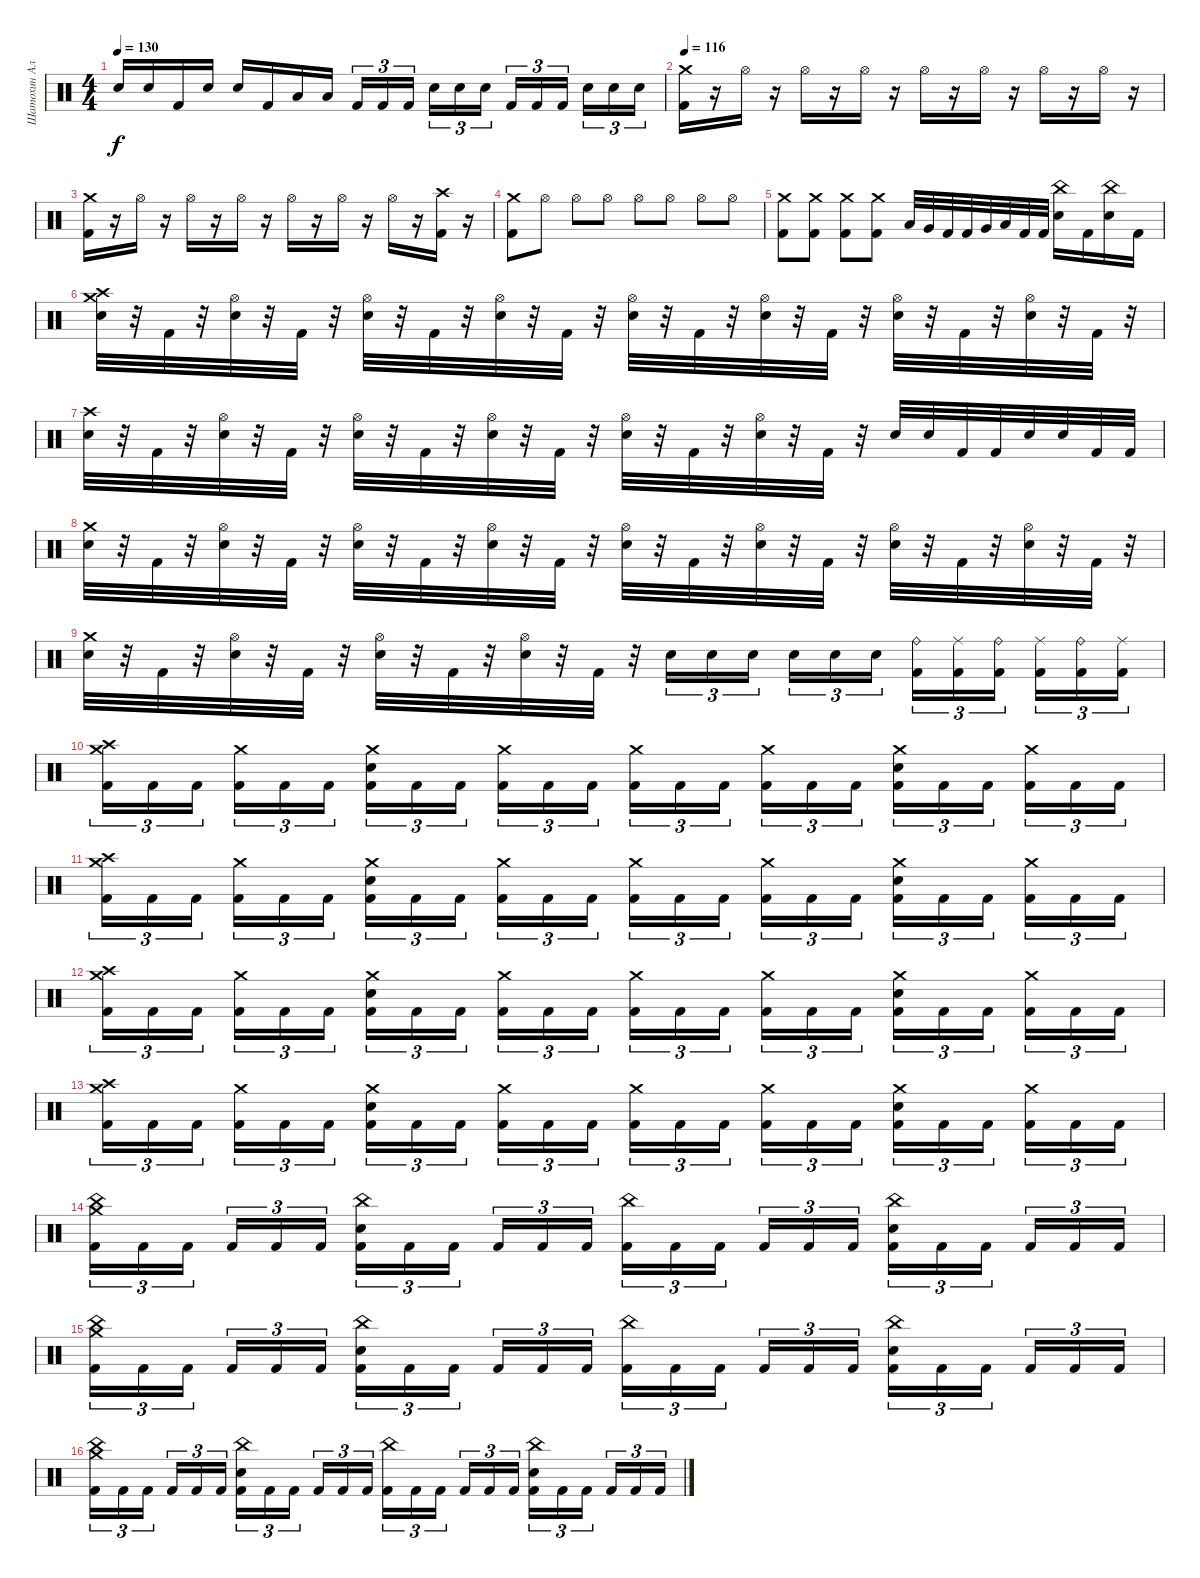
\track ("Шатохин Алексей" "Шатохин Ал") {instrument percussion}
\staff {score}
\articulation defaults
\ts (4 4)
\tempo 130
\clef neutral
\ks c "Electric Snare (hit)".16{dy f} "Electric Snare (hit)".16 "Kick (hit) 2".16 "Electric Snare (hit)".16 "Electric Snare (hit)".16 "Kick (hit) 2".16 "Low Tom (hit)".16 "Low Tom (hit)".16 "Kick (hit) 2".16{tu (3 2)} "Kick (hit) 2".16{tu (3 2)} "Kick (hit) 2".16{tu (3 2) beam splitsecondary} "Electric Snare (hit)".16{tu (3 2)} "Electric Snare (hit)".16{tu (3 2)} "Electric Snare (hit)".16{tu (3 2)} "Kick (hit) 2".16{tu (3 2)} "Kick (hit) 2".16{tu (3 2)} "Kick (hit) 2".16{tu (3 2) beam splitsecondary} "Electric Snare (hit)".16{tu (3 2)} "Electric Snare (hit)".16{tu (3 2)} "Electric Snare (hit)".16{tu (3 2)}
|
\tempo 116
("Crash medium (hit)" "Kick (hit) 2").16 r.16 "Hi-Hat (open)".16 r.16 "Hi-Hat (open)".16 r.16 "Hi-Hat (open)".16 r.16 "Hi-Hat (open)".16 r.16 "Hi-Hat (open)".16 r.16 "Hi-Hat (open)".16 r.16 "Hi-Hat (open)".16 r.16 |
("Crash medium (hit)" "Kick (hit) 2").16 r.16 "Hi-Hat (open)".16 r.16 "Hi-Hat (open)".16 r.16 "Hi-Hat (open)".16 r.16 "Hi-Hat (open)".16 r.16 "Hi-Hat (open)".16 r.16 "Hi-Hat (open)".16 r.16 ("Crash high (hit)" "Kick (hit) 2").16 r.16 |
("Crash medium (hit)" "Kick (hit) 2").8 "Hi-Hat (open)".8 "Hi-Hat (open)".8 "Hi-Hat (open)".8 "Hi-Hat (open)".8 "Hi-Hat (open)".8 "Hi-Hat (open)".8 "Hi-Hat (open)".8 |
("Crash medium (hit)" "Kick (hit) 2").8 ("Crash medium (hit)" "Kick (hit) 2").8 ("Crash medium (hit)" "Kick (hit) 2").8 ("Crash medium (hit)" "Kick (hit) 2").8 "Low Tom (hit)".32 "Very Low Tom (hit)".32 "Kick (hit) 2".32 "Kick (hit) 2".32 "Very Low Tom (hit)".32 "Low Floor Tom (hit)".32 "Kick (hit) 2".32 "Kick (hit) 2".32 ("China (hit)" "Electric Snare (hit)").16 "Kick (hit) 2".16 ("China (hit)" "Electric Snare (hit)").16 "Kick (hit) 2".16 |
("Crash high (hit)" "Crash medium (hit)" "Electric Snare (hit)").32 r.32 "Kick (hit) 2".32 r.32 ("Hi-Hat (open)" "Electric Snare (hit)").32 r.32 "Kick (hit) 2".32 r.32 ("Hi-Hat (open)" "Electric Snare (hit)").32 r.32 "Kick (hit) 2".32 r.32 ("Hi-Hat (open)" "Electric Snare (hit)").32 r.32 "Kick (hit) 2".32 r.32 ("Hi-Hat (open)" "Electric Snare (hit)").32 r.32 "Kick (hit) 2".32 r.32 ("Hi-Hat (open)" "Electric Snare (hit)").32 r.32 "Kick (hit) 2".32 r.32 ("Hi-Hat (open)" "Electric Snare (hit)").32 r.32 "Kick (hit) 2".32 r.32 ("Hi-Hat (open)" "Electric Snare (hit)").32 r.32 "Kick (hit) 2".32 r.32 |
("Crash high (hit)" "Electric Snare (hit)").32 r.32 "Kick (hit) 2".32 r.32 ("Hi-Hat (open)" "Electric Snare (hit)").32 r.32 "Kick (hit) 2".32 r.32 ("Hi-Hat (open)" "Electric Snare (hit)").32 r.32 "Kick (hit) 2".32 r.32 ("Hi-Hat (open)" "Electric Snare (hit)").32 r.32 "Kick (hit) 2".32 r.32 ("Hi-Hat (open)" "Electric Snare (hit)").32 r.32 "Kick (hit) 2".32 r.32 ("Hi-Hat (open)" "Electric Snare (hit)").32 r.32 "Kick (hit) 2".32 r.32 "Electric Snare (hit)".32 "Electric Snare (hit)".32 "Kick (hit) 2".32 "Kick (hit) 2".32 "Electric Snare (hit)".32 "Electric Snare (hit)".32 "Kick (hit) 2".32 "Kick (hit) 2".32 |
("Crash medium (hit)" "Electric Snare (hit)").32 r.32 "Kick (hit) 2".32 r.32 ("Hi-Hat (open)" "Electric Snare (hit)").32 r.32 "Kick (hit) 2".32 r.32 ("Hi-Hat (open)" "Electric Snare (hit)").32 r.32 "Kick (hit) 2".32 r.32 ("Hi-Hat (open)" "Electric Snare (hit)").32 r.32 "Kick (hit) 2".32 r.32 ("Hi-Hat (open)" "Electric Snare (hit)").32 r.32 "Kick (hit) 2".32 r.32 ("Hi-Hat (open)" "Electric Snare (hit)").32 r.32 "Kick (hit) 2".32 r.32 ("Hi-Hat (open)" "Electric Snare (hit)").32 r.32 "Kick (hit) 2".32 r.32 ("Hi-Hat (open)" "Electric Snare (hit)").32 r.32 "Kick (hit) 2".32 r.32 |
("Crash medium (hit)" "Electric Snare (hit)").32 r.32 "Kick (hit) 2".32 r.32 ("Hi-Hat (open)" "Electric Snare (hit)").32 r.32 "Kick (hit) 2".32 r.32 ("Hi-Hat (open)" "Electric Snare (hit)").32 r.32 "Kick (hit) 2".32 r.32 ("Hi-Hat (open)" "Electric Snare (hit)").32 r.32 "Kick (hit) 2".32 r.32 "Electric Snare (hit)".16{tu (3 2)} "Electric Snare (hit)".16{tu (3 2)} "Electric Snare (hit)".16{tu (3 2) beam splitsecondary} "Electric Snare (hit)".16{tu (3 2)} "Electric Snare (hit)".16{tu (3 2)} "Electric Snare (hit)".16{tu (3 2)} ("Ride (bell)" "Kick (hit) 2").16{tu (3 2)} ("Ride (middle)" "Kick (hit) 2").16{tu (3 2)} ("Ride (bell)" "Kick (hit) 2").16{tu (3 2) beam splitsecondary} ("Ride (middle)" "Kick (hit) 2").16{tu (3 2)} ("Ride (bell)" "Kick (hit) 2").16{tu (3 2)} ("Ride (middle)" "Kick (hit) 2").16{tu (3 2)} |
("Crash high (hit)" "Crash medium (hit)" "Kick (hit) 2").16{tu (3 2)} "Kick (hit) 2".16{tu (3 2)} "Kick (hit) 2".16{tu (3 2) beam splitsecondary} ("Crash medium (hit)" "Kick (hit) 2").16{tu (3 2)} "Kick (hit) 2".16{tu (3 2)} "Kick (hit) 2".16{tu (3 2)} ("Crash medium (hit)" "Electric Snare (hit)" "Kick (hit) 2").16{tu (3 2)} "Kick (hit) 2".16{tu (3 2)} "Kick (hit) 2".16{tu (3 2) beam splitsecondary} ("Crash medium (hit)" "Kick (hit) 2").16{tu (3 2)} "Kick (hit) 2".16{tu (3 2)} "Kick (hit) 2".16{tu (3 2)} ("Crash medium (hit)" "Kick (hit) 2").16{tu (3 2)} "Kick (hit) 2".16{tu (3 2)} "Kick (hit) 2".16{tu (3 2) beam splitsecondary} ("Crash medium (hit)" "Kick (hit) 2").16{tu (3 2)} "Kick (hit) 2".16{tu (3 2)} "Kick (hit) 2".16{tu (3 2)} ("Crash medium (hit)" "Electric Snare (hit)" "Kick (hit) 2").16{tu (3 2)} "Kick (hit) 2".16{tu (3 2)} "Kick (hit) 2".16{tu (3 2) beam splitsecondary} ("Crash medium (hit)" "Kick (hit) 2").16{tu (3 2)} "Kick (hit) 2".16{tu (3 2)} "Kick (hit) 2".16{tu (3 2)} |
("Crash high (hit)" "Crash medium (hit)" "Kick (hit) 2").16{tu (3 2)} "Kick (hit) 2".16{tu (3 2)} "Kick (hit) 2".16{tu (3 2) beam splitsecondary} ("Crash medium (hit)" "Kick (hit) 2").16{tu (3 2)} "Kick (hit) 2".16{tu (3 2)} "Kick (hit) 2".16{tu (3 2)} ("Crash medium (hit)" "Electric Snare (hit)" "Kick (hit) 2").16{tu (3 2)} "Kick (hit) 2".16{tu (3 2)} "Kick (hit) 2".16{tu (3 2) beam splitsecondary} ("Crash medium (hit)" "Kick (hit) 2").16{tu (3 2)} "Kick (hit) 2".16{tu (3 2)} "Kick (hit) 2".16{tu (3 2)} ("Crash medium (hit)" "Kick (hit) 2").16{tu (3 2)} "Kick (hit) 2".16{tu (3 2)} "Kick (hit) 2".16{tu (3 2) beam splitsecondary} ("Crash medium (hit)" "Kick (hit) 2").16{tu (3 2)} "Kick (hit) 2".16{tu (3 2)} "Kick (hit) 2".16{tu (3 2)} ("Crash medium (hit)" "Electric Snare (hit)" "Kick (hit) 2").16{tu (3 2)} "Kick (hit) 2".16{tu (3 2)} "Kick (hit) 2".16{tu (3 2) beam splitsecondary} ("Crash medium (hit)" "Kick (hit) 2").16{tu (3 2)} "Kick (hit) 2".16{tu (3 2)} "Kick (hit) 2".16{tu (3 2)} |
("Crash high (hit)" "Crash medium (hit)" "Kick (hit) 2").16{tu (3 2)} "Kick (hit) 2".16{tu (3 2)} "Kick (hit) 2".16{tu (3 2) beam splitsecondary} ("Crash medium (hit)" "Kick (hit) 2").16{tu (3 2)} "Kick (hit) 2".16{tu (3 2)} "Kick (hit) 2".16{tu (3 2)} ("Crash medium (hit)" "Electric Snare (hit)" "Kick (hit) 2").16{tu (3 2)} "Kick (hit) 2".16{tu (3 2)} "Kick (hit) 2".16{tu (3 2) beam splitsecondary} ("Crash medium (hit)" "Kick (hit) 2").16{tu (3 2)} "Kick (hit) 2".16{tu (3 2)} "Kick (hit) 2".16{tu (3 2)} ("Crash medium (hit)" "Kick (hit) 2").16{tu (3 2)} "Kick (hit) 2".16{tu (3 2)} "Kick (hit) 2".16{tu (3 2) beam splitsecondary} ("Crash medium (hit)" "Kick (hit) 2").16{tu (3 2)} "Kick (hit) 2".16{tu (3 2)} "Kick (hit) 2".16{tu (3 2)} ("Crash medium (hit)" "Electric Snare (hit)" "Kick (hit) 2").16{tu (3 2)} "Kick (hit) 2".16{tu (3 2)} "Kick (hit) 2".16{tu (3 2) beam splitsecondary} ("Crash medium (hit)" "Kick (hit) 2").16{tu (3 2)} "Kick (hit) 2".16{tu (3 2)} "Kick (hit) 2".16{tu (3 2)} |
("Crash high (hit)" "Crash medium (hit)" "Kick (hit) 2").16{tu (3 2)} "Kick (hit) 2".16{tu (3 2)} "Kick (hit) 2".16{tu (3 2) beam splitsecondary} ("Crash medium (hit)" "Kick (hit) 2").16{tu (3 2)} "Kick (hit) 2".16{tu (3 2)} "Kick (hit) 2".16{tu (3 2)} ("Crash medium (hit)" "Electric Snare (hit)" "Kick (hit) 2").16{tu (3 2)} "Kick (hit) 2".16{tu (3 2)} "Kick (hit) 2".16{tu (3 2) beam splitsecondary} ("Crash medium (hit)" "Kick (hit) 2").16{tu (3 2)} "Kick (hit) 2".16{tu (3 2)} "Kick (hit) 2".16{tu (3 2)} ("Crash medium (hit)" "Kick (hit) 2").16{tu (3 2)} "Kick (hit) 2".16{tu (3 2)} "Kick (hit) 2".16{tu (3 2) beam splitsecondary} ("Crash medium (hit)" "Kick (hit) 2").16{tu (3 2)} "Kick (hit) 2".16{tu (3 2)} "Kick (hit) 2".16{tu (3 2)} ("Crash medium (hit)" "Electric Snare (hit)" "Kick (hit) 2").16{tu (3 2)} "Kick (hit) 2".16{tu (3 2)} "Kick (hit) 2".16{tu (3 2) beam splitsecondary} ("Crash medium (hit)" "Kick (hit) 2").16{tu (3 2)} "Kick (hit) 2".16{tu (3 2)} "Kick (hit) 2".16{tu (3 2)} |
("China (hit)" "Crash medium (hit)" "Kick (hit) 2").16{tu (3 2)} "Kick (hit) 2".16{tu (3 2)} "Kick (hit) 2".16{tu (3 2) beam splitsecondary} "Kick (hit) 2".16{tu (3 2)} "Kick (hit) 2".16{tu (3 2)} "Kick (hit) 2".16{tu (3 2)} ("China (hit)" "Electric Snare (hit)" "Kick (hit) 2").16{tu (3 2)} "Kick (hit) 2".16{tu (3 2)} "Kick (hit) 2".16{tu (3 2) beam splitsecondary} "Kick (hit) 2".16{tu (3 2)} "Kick (hit) 2".16{tu (3 2)} "Kick (hit) 2".16{tu (3 2)} ("China (hit)" "Kick (hit) 2").16{tu (3 2)} "Kick (hit) 2".16{tu (3 2)} "Kick (hit) 2".16{tu (3 2) beam splitsecondary} "Kick (hit) 2".16{tu (3 2)} "Kick (hit) 2".16{tu (3 2)} "Kick (hit) 2".16{tu (3 2)} ("China (hit)" "Electric Snare (hit)" "Kick (hit) 2").16{tu (3 2)} "Kick (hit) 2".16{tu (3 2)} "Kick (hit) 2".16{tu (3 2) beam splitsecondary} "Kick (hit) 2".16{tu (3 2)} "Kick (hit) 2".16{tu (3 2)} "Kick (hit) 2".16{tu (3 2)} |
("China (hit)" "Crash medium (hit)" "Kick (hit) 2").16{tu (3 2)} "Kick (hit) 2".16{tu (3 2)} "Kick (hit) 2".16{tu (3 2) beam splitsecondary} "Kick (hit) 2".16{tu (3 2)} "Kick (hit) 2".16{tu (3 2)} "Kick (hit) 2".16{tu (3 2)} ("China (hit)" "Electric Snare (hit)" "Kick (hit) 2").16{tu (3 2)} "Kick (hit) 2".16{tu (3 2)} "Kick (hit) 2".16{tu (3 2) beam splitsecondary} "Kick (hit) 2".16{tu (3 2)} "Kick (hit) 2".16{tu (3 2)} "Kick (hit) 2".16{tu (3 2)} ("China (hit)" "Kick (hit) 2").16{tu (3 2)} "Kick (hit) 2".16{tu (3 2)} "Kick (hit) 2".16{tu (3 2) beam splitsecondary} "Kick (hit) 2".16{tu (3 2)} "Kick (hit) 2".16{tu (3 2)} "Kick (hit) 2".16{tu (3 2)} ("China (hit)" "Electric Snare (hit)" "Kick (hit) 2").16{tu (3 2)} "Kick (hit) 2".16{tu (3 2)} "Kick (hit) 2".16{tu (3 2) beam splitsecondary} "Kick (hit) 2".16{tu (3 2)} "Kick (hit) 2".16{tu (3 2)} "Kick (hit) 2".16{tu (3 2)} |
("China (hit)" "Crash medium (hit)" "Kick (hit) 2").16{tu (3 2)} "Kick (hit) 2".16{tu (3 2)} "Kick (hit) 2".16{tu (3 2) beam splitsecondary} "Kick (hit) 2".16{tu (3 2)} "Kick (hit) 2".16{tu (3 2)} "Kick (hit) 2".16{tu (3 2)} ("China (hit)" "Electric Snare (hit)" "Kick (hit) 2").16{tu (3 2)} "Kick (hit) 2".16{tu (3 2)} "Kick (hit) 2".16{tu (3 2) beam splitsecondary} "Kick (hit) 2".16{tu (3 2)} "Kick (hit) 2".16{tu (3 2)} "Kick (hit) 2".16{tu (3 2)} ("China (hit)" "Kick (hit) 2").16{tu (3 2)} "Kick (hit) 2".16{tu (3 2)} "Kick (hit) 2".16{tu (3 2) beam splitsecondary} "Kick (hit) 2".16{tu (3 2)} "Kick (hit) 2".16{tu (3 2)} "Kick (hit) 2".16{tu (3 2)} ("China (hit)" "Electric Snare (hit)" "Kick (hit) 2").16{tu (3 2)} "Kick (hit) 2".16{tu (3 2)} "Kick (hit) 2".16{tu (3 2) beam splitsecondary} "Kick (hit) 2".16{tu (3 2)} "Kick (hit) 2".16{tu (3 2)} "Kick (hit) 2".16{tu (3 2)}
